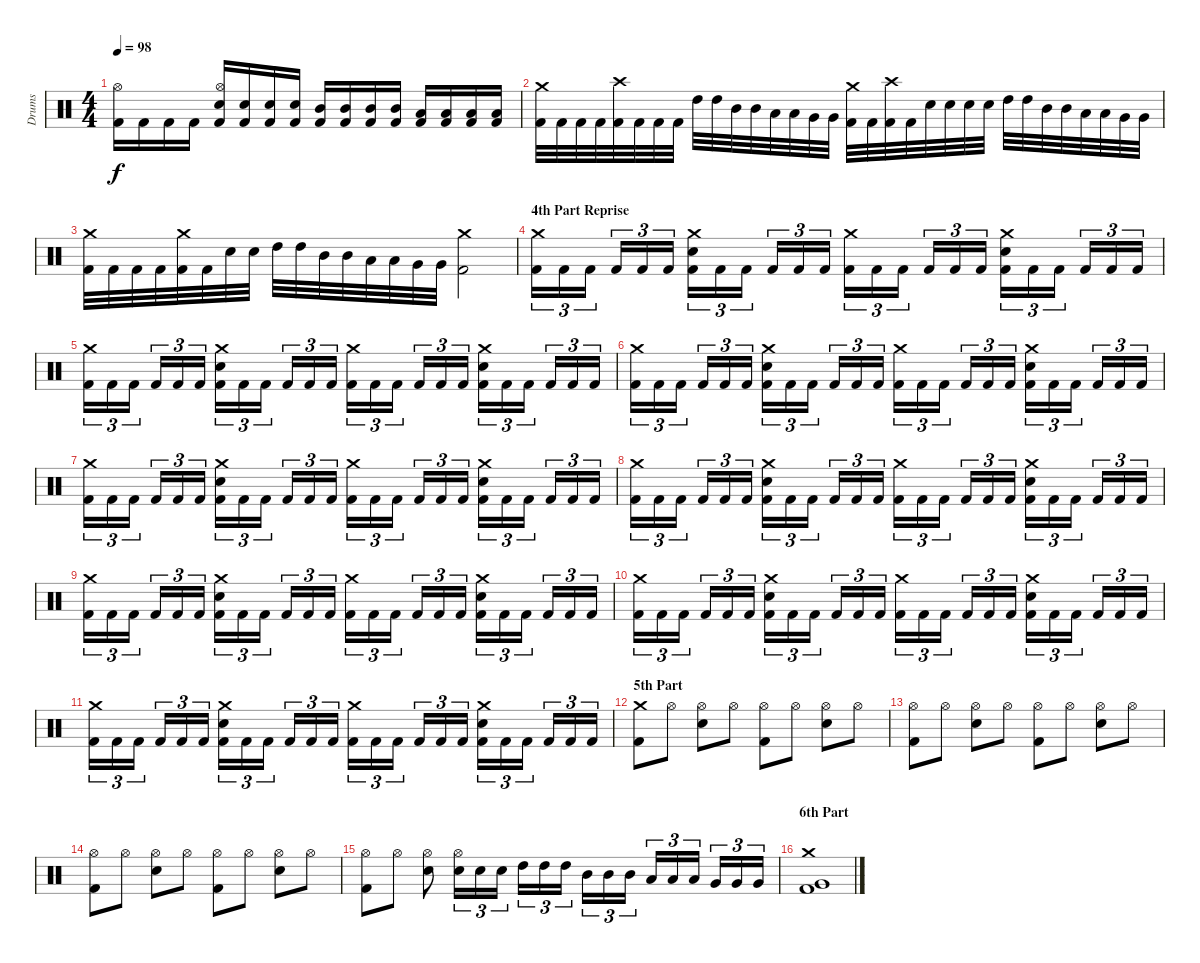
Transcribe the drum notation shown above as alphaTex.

\track ("Drums" "Drums") {instrument percussion}
\staff {score}
\articulation defaults
\ts (4 4)
\tempo 98
\clef neutral
\ks c
("Kick (hit) 2" "Hi-Hat (open)").16{dy f} "Kick (hit) 2".16 "Kick (hit) 2".16 "Kick (hit) 2".16 ("Kick (hit) 2" "Electric Snare (hit)" "Hi-Hat (open)").16 ("Kick (hit) 2" "Electric Snare (hit)").16 ("Kick (hit) 2" "Electric Snare (hit)").16 ("Kick (hit) 2" "Electric Snare (hit)").16 ("Kick (hit) 2" "Mid Tom (hit)").16 ("Kick (hit) 2" "Mid Tom (hit)").16 ("Kick (hit) 2" "Mid Tom (hit)").16 ("Kick (hit) 2" "Mid Tom (hit)").16 ("Kick (hit) 2" "Low Tom (hit)").16 ("Kick (hit) 2" "Low Tom (hit)").16 ("Kick (hit) 2" "Low Tom (hit)").16 ("Kick (hit) 2" "Low Tom (hit)").16 |
\section ("" "")
("Kick (hit) 2" "Crash medium (hit)").32 "Kick (hit) 2".32 "Kick (hit) 2".32 "Kick (hit) 2".32 ("Kick (hit) 2" "Crash high (hit)").32 "Kick (hit) 2".32 "Kick (hit) 2".32 "Kick (hit) 2".32 "High Tom (hit)".32 "High Tom (hit)".32 "Mid Tom (hit)".32 "Mid Tom (hit)".32 "Low Tom (hit)".32 "Low Tom (hit)".32 "Very Low Tom (hit)".32 "Very Low Tom (hit)".32 ("Kick (hit) 2" "Crash medium (hit)").32 "Kick (hit) 2".32 ("Kick (hit) 2" "Crash high (hit)").32 "Kick (hit) 2".32 "Electric Snare (hit)".32 "Electric Snare (hit)".32 "Electric Snare (hit)".32 "Electric Snare (hit)".32 "High Tom (hit)".32 "High Tom (hit)".32 "Mid Tom (hit)".32 "Mid Tom (hit)".32 "Low Tom (hit)".32 "Low Tom (hit)".32 "Very Low Tom (hit)".32 "Very Low Tom (hit)".32 |
("Kick (hit) 2" "Crash medium (hit)").32 "Kick (hit) 2".32 "Kick (hit) 2".32 "Kick (hit) 2".32 ("Kick (hit) 2" "Crash medium (hit)").32 "Kick (hit) 2".32 "Electric Snare (hit)".32 "Electric Snare (hit)".32 "High Tom (hit)".32 "High Tom (hit)".32 "Mid Tom (hit)".32 "Mid Tom (hit)".32 "Low Tom (hit)".32 "Low Tom (hit)".32 "Very Low Tom (hit)".32 "Very Low Tom (hit)".32 ("Kick (hit) 2" "Crash medium (hit)").2 |
\section ("" "4th Part Reprise")
("Kick (hit) 2" "Crash medium (hit)").16{tu (3 2)} "Kick (hit) 2".16{tu (3 2)} "Kick (hit) 2".16{tu (3 2)} "Kick (hit) 2".16{tu (3 2)} "Kick (hit) 2".16{tu (3 2)} "Kick (hit) 2".16{tu (3 2)} ("Kick (hit) 2" "Electric Snare (hit)" "Crash medium (hit)").16{tu (3 2)} "Kick (hit) 2".16{tu (3 2)} "Kick (hit) 2".16{tu (3 2)} "Kick (hit) 2".16{tu (3 2)} "Kick (hit) 2".16{tu (3 2)} "Kick (hit) 2".16{tu (3 2)} ("Kick (hit) 2" "Crash medium (hit)").16{tu (3 2)} "Kick (hit) 2".16{tu (3 2)} "Kick (hit) 2".16{tu (3 2)} "Kick (hit) 2".16{tu (3 2)} "Kick (hit) 2".16{tu (3 2)} "Kick (hit) 2".16{tu (3 2)} ("Kick (hit) 2" "Electric Snare (hit)" "Crash medium (hit)").16{tu (3 2)} "Kick (hit) 2".16{tu (3 2)} "Kick (hit) 2".16{tu (3 2)} "Kick (hit) 2".16{tu (3 2)} "Kick (hit) 2".16{tu (3 2)} "Kick (hit) 2".16{tu (3 2)} |
("Kick (hit) 2" "Crash medium (hit)").16{tu (3 2)} "Kick (hit) 2".16{tu (3 2)} "Kick (hit) 2".16{tu (3 2)} "Kick (hit) 2".16{tu (3 2)} "Kick (hit) 2".16{tu (3 2)} "Kick (hit) 2".16{tu (3 2)} ("Kick (hit) 2" "Electric Snare (hit)" "Crash medium (hit)").16{tu (3 2)} "Kick (hit) 2".16{tu (3 2)} "Kick (hit) 2".16{tu (3 2)} "Kick (hit) 2".16{tu (3 2)} "Kick (hit) 2".16{tu (3 2)} "Kick (hit) 2".16{tu (3 2)} ("Kick (hit) 2" "Crash medium (hit)").16{tu (3 2)} "Kick (hit) 2".16{tu (3 2)} "Kick (hit) 2".16{tu (3 2)} "Kick (hit) 2".16{tu (3 2)} "Kick (hit) 2".16{tu (3 2)} "Kick (hit) 2".16{tu (3 2)} ("Kick (hit) 2" "Electric Snare (hit)" "Crash medium (hit)").16{tu (3 2)} "Kick (hit) 2".16{tu (3 2)} "Kick (hit) 2".16{tu (3 2)} "Kick (hit) 2".16{tu (3 2)} "Kick (hit) 2".16{tu (3 2)} "Kick (hit) 2".16{tu (3 2)} |
("Kick (hit) 2" "Crash medium (hit)").16{tu (3 2)} "Kick (hit) 2".16{tu (3 2)} "Kick (hit) 2".16{tu (3 2)} "Kick (hit) 2".16{tu (3 2)} "Kick (hit) 2".16{tu (3 2)} "Kick (hit) 2".16{tu (3 2)} ("Kick (hit) 2" "Electric Snare (hit)" "Crash medium (hit)").16{tu (3 2)} "Kick (hit) 2".16{tu (3 2)} "Kick (hit) 2".16{tu (3 2)} "Kick (hit) 2".16{tu (3 2)} "Kick (hit) 2".16{tu (3 2)} "Kick (hit) 2".16{tu (3 2)} ("Kick (hit) 2" "Crash medium (hit)").16{tu (3 2)} "Kick (hit) 2".16{tu (3 2)} "Kick (hit) 2".16{tu (3 2)} "Kick (hit) 2".16{tu (3 2)} "Kick (hit) 2".16{tu (3 2)} "Kick (hit) 2".16{tu (3 2)} ("Kick (hit) 2" "Electric Snare (hit)" "Crash medium (hit)").16{tu (3 2)} "Kick (hit) 2".16{tu (3 2)} "Kick (hit) 2".16{tu (3 2)} "Kick (hit) 2".16{tu (3 2)} "Kick (hit) 2".16{tu (3 2)} "Kick (hit) 2".16{tu (3 2)} |
("Kick (hit) 2" "Crash medium (hit)").16{tu (3 2)} "Kick (hit) 2".16{tu (3 2)} "Kick (hit) 2".16{tu (3 2)} "Kick (hit) 2".16{tu (3 2)} "Kick (hit) 2".16{tu (3 2)} "Kick (hit) 2".16{tu (3 2)} ("Kick (hit) 2" "Electric Snare (hit)" "Crash medium (hit)").16{tu (3 2)} "Kick (hit) 2".16{tu (3 2)} "Kick (hit) 2".16{tu (3 2)} "Kick (hit) 2".16{tu (3 2)} "Kick (hit) 2".16{tu (3 2)} "Kick (hit) 2".16{tu (3 2)} ("Kick (hit) 2" "Crash medium (hit)").16{tu (3 2)} "Kick (hit) 2".16{tu (3 2)} "Kick (hit) 2".16{tu (3 2)} "Kick (hit) 2".16{tu (3 2)} "Kick (hit) 2".16{tu (3 2)} "Kick (hit) 2".16{tu (3 2)} ("Kick (hit) 2" "Electric Snare (hit)" "Crash medium (hit)").16{tu (3 2)} "Kick (hit) 2".16{tu (3 2)} "Kick (hit) 2".16{tu (3 2)} "Kick (hit) 2".16{tu (3 2)} "Kick (hit) 2".16{tu (3 2)} "Kick (hit) 2".16{tu (3 2)} |
("Kick (hit) 2" "Crash medium (hit)").16{tu (3 2)} "Kick (hit) 2".16{tu (3 2)} "Kick (hit) 2".16{tu (3 2)} "Kick (hit) 2".16{tu (3 2)} "Kick (hit) 2".16{tu (3 2)} "Kick (hit) 2".16{tu (3 2)} ("Kick (hit) 2" "Electric Snare (hit)" "Crash medium (hit)").16{tu (3 2)} "Kick (hit) 2".16{tu (3 2)} "Kick (hit) 2".16{tu (3 2)} "Kick (hit) 2".16{tu (3 2)} "Kick (hit) 2".16{tu (3 2)} "Kick (hit) 2".16{tu (3 2)} ("Kick (hit) 2" "Crash medium (hit)").16{tu (3 2)} "Kick (hit) 2".16{tu (3 2)} "Kick (hit) 2".16{tu (3 2)} "Kick (hit) 2".16{tu (3 2)} "Kick (hit) 2".16{tu (3 2)} "Kick (hit) 2".16{tu (3 2)} ("Kick (hit) 2" "Electric Snare (hit)" "Crash medium (hit)").16{tu (3 2)} "Kick (hit) 2".16{tu (3 2)} "Kick (hit) 2".16{tu (3 2)} "Kick (hit) 2".16{tu (3 2)} "Kick (hit) 2".16{tu (3 2)} "Kick (hit) 2".16{tu (3 2)} |
("Kick (hit) 2" "Crash medium (hit)").16{tu (3 2)} "Kick (hit) 2".16{tu (3 2)} "Kick (hit) 2".16{tu (3 2)} "Kick (hit) 2".16{tu (3 2)} "Kick (hit) 2".16{tu (3 2)} "Kick (hit) 2".16{tu (3 2)} ("Kick (hit) 2" "Electric Snare (hit)" "Crash medium (hit)").16{tu (3 2)} "Kick (hit) 2".16{tu (3 2)} "Kick (hit) 2".16{tu (3 2)} "Kick (hit) 2".16{tu (3 2)} "Kick (hit) 2".16{tu (3 2)} "Kick (hit) 2".16{tu (3 2)} ("Kick (hit) 2" "Crash medium (hit)").16{tu (3 2)} "Kick (hit) 2".16{tu (3 2)} "Kick (hit) 2".16{tu (3 2)} "Kick (hit) 2".16{tu (3 2)} "Kick (hit) 2".16{tu (3 2)} "Kick (hit) 2".16{tu (3 2)} ("Kick (hit) 2" "Electric Snare (hit)" "Crash medium (hit)").16{tu (3 2)} "Kick (hit) 2".16{tu (3 2)} "Kick (hit) 2".16{tu (3 2)} "Kick (hit) 2".16{tu (3 2)} "Kick (hit) 2".16{tu (3 2)} "Kick (hit) 2".16{tu (3 2)} |
("Kick (hit) 2" "Crash medium (hit)").16{tu (3 2)} "Kick (hit) 2".16{tu (3 2)} "Kick (hit) 2".16{tu (3 2)} "Kick (hit) 2".16{tu (3 2)} "Kick (hit) 2".16{tu (3 2)} "Kick (hit) 2".16{tu (3 2)} ("Kick (hit) 2" "Electric Snare (hit)" "Crash medium (hit)").16{tu (3 2)} "Kick (hit) 2".16{tu (3 2)} "Kick (hit) 2".16{tu (3 2)} "Kick (hit) 2".16{tu (3 2)} "Kick (hit) 2".16{tu (3 2)} "Kick (hit) 2".16{tu (3 2)} ("Kick (hit) 2" "Crash medium (hit)").16{tu (3 2)} "Kick (hit) 2".16{tu (3 2)} "Kick (hit) 2".16{tu (3 2)} "Kick (hit) 2".16{tu (3 2)} "Kick (hit) 2".16{tu (3 2)} "Kick (hit) 2".16{tu (3 2)} ("Kick (hit) 2" "Electric Snare (hit)" "Crash medium (hit)").16{tu (3 2)} "Kick (hit) 2".16{tu (3 2)} "Kick (hit) 2".16{tu (3 2)} "Kick (hit) 2".16{tu (3 2)} "Kick (hit) 2".16{tu (3 2)} "Kick (hit) 2".16{tu (3 2)} |
("Kick (hit) 2" "Crash medium (hit)").16{tu (3 2)} "Kick (hit) 2".16{tu (3 2)} "Kick (hit) 2".16{tu (3 2)} "Kick (hit) 2".16{tu (3 2)} "Kick (hit) 2".16{tu (3 2)} "Kick (hit) 2".16{tu (3 2)} ("Kick (hit) 2" "Electric Snare (hit)" "Crash medium (hit)").16{tu (3 2)} "Kick (hit) 2".16{tu (3 2)} "Kick (hit) 2".16{tu (3 2)} "Kick (hit) 2".16{tu (3 2)} "Kick (hit) 2".16{tu (3 2)} "Kick (hit) 2".16{tu (3 2)} ("Kick (hit) 2" "Crash medium (hit)").16{tu (3 2)} "Kick (hit) 2".16{tu (3 2)} "Kick (hit) 2".16{tu (3 2)} "Kick (hit) 2".16{tu (3 2)} "Kick (hit) 2".16{tu (3 2)} "Kick (hit) 2".16{tu (3 2)} ("Kick (hit) 2" "Electric Snare (hit)" "Crash medium (hit)").16{tu (3 2)} "Kick (hit) 2".16{tu (3 2)} "Kick (hit) 2".16{tu (3 2)} "Kick (hit) 2".16{tu (3 2)} "Kick (hit) 2".16{tu (3 2)} "Kick (hit) 2".16{tu (3 2)} |
\section ("" "5th Part")
("Kick (hit) 2" "Crash medium (hit)").8 "Hi-Hat (open)".8 ("Electric Snare (hit)" "Hi-Hat (open)").8 "Hi-Hat (open)".8 ("Kick (hit) 2" "Hi-Hat (open)").8 "Hi-Hat (open)".8 ("Electric Snare (hit)" "Hi-Hat (open)").8 "Hi-Hat (open)".8 |
("Kick (hit) 2" "Hi-Hat (open)").8 "Hi-Hat (open)".8 ("Electric Snare (hit)" "Hi-Hat (open)").8 "Hi-Hat (open)".8 ("Kick (hit) 2" "Hi-Hat (open)").8 "Hi-Hat (open)".8 ("Electric Snare (hit)" "Hi-Hat (open)").8 "Hi-Hat (open)".8 |
("Kick (hit) 2" "Hi-Hat (open)").8 "Hi-Hat (open)".8 ("Electric Snare (hit)" "Hi-Hat (open)").8 "Hi-Hat (open)".8 ("Kick (hit) 2" "Hi-Hat (open)").8 "Hi-Hat (open)".8 ("Electric Snare (hit)" "Hi-Hat (open)").8 "Hi-Hat (open)".8 |
("Kick (hit) 2" "Hi-Hat (open)").8 "Hi-Hat (open)".8 ("Electric Snare (hit)" "Hi-Hat (open)").8 ("Electric Snare (hit)" "Hi-Hat (open)").16{tu (3 2)} "Electric Snare (hit)".16{tu (3 2)} "Electric Snare (hit)".16{tu (3 2)} "High Tom (hit)".16{tu (3 2)} "High Tom (hit)".16{tu (3 2)} "High Tom (hit)".16{tu (3 2)} "Mid Tom (hit)".16{tu (3 2)} "Mid Tom (hit)".16{tu (3 2)} "Mid Tom (hit)".16{tu (3 2)} "Low Tom (hit)".16{tu (3 2)} "Low Tom (hit)".16{tu (3 2)} "Low Tom (hit)".16{tu (3 2)} "Very Low Tom (hit)".16{tu (3 2)} "Very Low Tom (hit)".16{tu (3 2)} "Very Low Tom (hit)".16{tu (3 2)} |
\section ("" "6th Part")
("Kick (hit) 2" "Very Low Tom (hit)" "Crash medium (hit)").1
